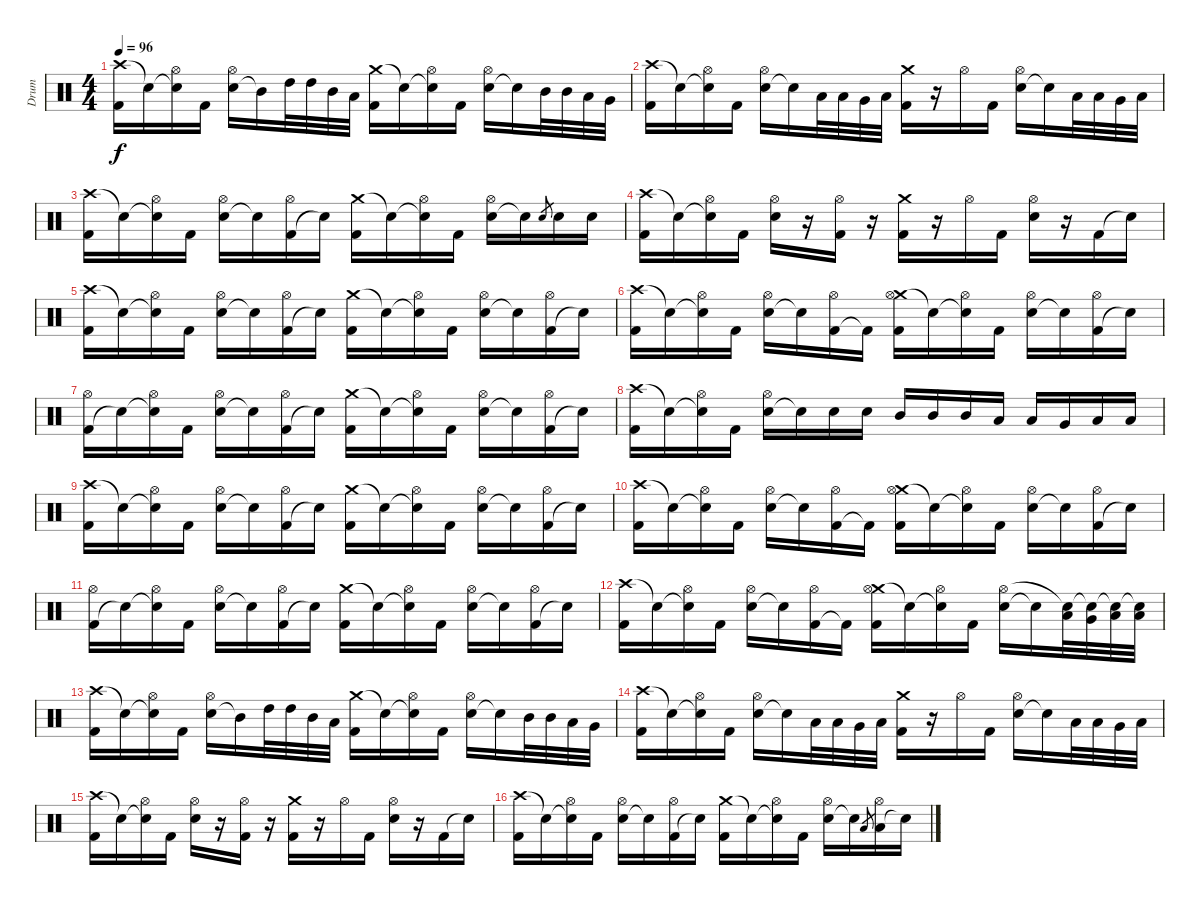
\track ("Drum" "Drum") {instrument percussion}
\staff {score}
\articulation defaults
\ts (4 4)
\tempo 96
\clef neutral
\ks c
("Crash high (hit)" "Kick (hit) 2").16{dy f} "Snare (hit)"{t}.16 ("Snare (hit)"{t} "Hi-Hat (open)").16 "Kick (hit) 2".16 ("Electric Snare (hit)" "Hi-Hat (open)").16 "Mid Tom (hit)"{t}.16 "High Tom (hit)".32{balance 0} "High Tom (hit)".32 "Mid Tom (hit)".32 "Low Tom (hit)".32 ("Crash medium (hit)" "Kick (hit) 2").16{balance 8} "Snare (hit)"{t}.16 ("Snare (hit)"{t} "Hi-Hat (open)").16 "Kick (hit) 2".16 ("Electric Snare (hit)" "Hi-Hat (open)").16 "Snare (hit)"{t}.16 "Mid Tom (hit)".32{balance 16} "Mid Tom (hit)".32 "Low Tom (hit)".32 "Very Low Tom (hit)".32 |
("Crash high (hit)" "Kick (hit) 2").16{balance 8} "Snare (hit)"{t}.16 ("Snare (hit)"{t} "Hi-Hat (open)").16 "Kick (hit) 2".16 ("Electric Snare (hit)" "Hi-Hat (open)").16 "Snare (hit)"{t}.16 "Low Tom (hit)".32{balance 0} "Low Tom (hit)".32 "Very Low Tom (hit)".32 "Low Floor Tom (hit)".32 ("Crash medium (hit)" "Kick (hit) 2").16{balance 8} r.16 "Hi-Hat (open)".16 "Kick (hit) 2".16 ("Electric Snare (hit)" "Hi-Hat (open)").16 "Snare (hit)"{t}.16 "Low Tom (hit)".32{balance 16} "Low Tom (hit)".32 "Very Low Tom (hit)".32 "Low Floor Tom (hit)".32 |
("Crash high (hit)" "Kick (hit) 2").16{balance 8} "Snare (hit)"{t}.16 ("Snare (hit)"{t} "Hi-Hat (open)").16 "Kick (hit) 2".16 ("Electric Snare (hit)" "Hi-Hat (open)").16 "Snare (hit)"{t}.16 ("Kick (hit) 2" "Hi-Hat (open)").16 "Snare (hit)"{t}.16 ("Crash medium (hit)" "Kick (hit) 2").16 "Snare (hit)"{t}.16 ("Snare (hit)"{t} "Hi-Hat (open)").16 "Kick (hit) 2".16 ("Electric Snare (hit)" "Hi-Hat (open)").16 "Snare (hit)"{t}.16 "Electric Snare (hit)".8{gr} "Electric Snare (hit)".16 "Electric Snare (hit)".16 |
("Crash high (hit)" "Kick (hit) 2").16 "Snare (hit)"{t}.16 ("Snare (hit)"{t} "Hi-Hat (open)").16 "Kick (hit) 2".16 ("Electric Snare (hit)" "Hi-Hat (open)").16 r.16 ("Kick (hit) 2" "Hi-Hat (open)").16 r.16 ("Crash medium (hit)" "Kick (hit) 2").16 r.16 "Hi-Hat (open)".16 "Kick (hit) 2".16 ("Electric Snare (hit)" "Hi-Hat (open)").16 r.16 "Kick (hit) 2".16 "Snare (hit)"{t}.16 |
("Crash high (hit)" "Kick (hit) 2").16 "Snare (hit)"{t}.16 ("Snare (hit)"{t} "Hi-Hat (open)").16 "Kick (hit) 2".16 ("Electric Snare (hit)" "Hi-Hat (open)").16 "Snare (hit)"{t}.16 ("Kick (hit) 2" "Hi-Hat (open)").16 "Snare (hit)"{t}.16 ("Crash medium (hit)" "Kick (hit) 2").16 "Snare (hit)"{t}.16 ("Snare (hit)"{t} "Hi-Hat (open)").16 "Kick (hit) 2".16 ("Electric Snare (hit)" "Hi-Hat (open)").16 "Snare (hit)"{t}.16 ("Kick (hit) 2" "Hi-Hat (open)").16 "Snare (hit)"{t}.16 |
("Crash high (hit)" "Kick (hit) 2").16 "Snare (hit)"{t}.16 ("Snare (hit)"{t} "Hi-Hat (open)").16 "Kick (hit) 2".16 ("Electric Snare (hit)" "Hi-Hat (open)").16 "Snare (hit)"{t}.16 ("Kick (hit) 2" "Hi-Hat (open)").16 "Kick (hit) 2"{t}.16 ("Crash medium (hit)" "Kick (hit) 2" "Hi-Hat (open)").16 "Snare (hit)"{t}.16 ("Snare (hit)"{t} "Hi-Hat (open)").16 "Kick (hit) 2".16 ("Electric Snare (hit)" "Hi-Hat (open)").16 "Snare (hit)"{t}.16 ("Kick (hit) 2" "Hi-Hat (open)").16 "Snare (hit)"{t}.16 |
("Kick (hit) 2" "Hi-Hat (open)").16 "Snare (hit)"{t}.16 ("Snare (hit)"{t} "Hi-Hat (open)").16 "Kick (hit) 2".16 ("Electric Snare (hit)" "Hi-Hat (open)").16 "Snare (hit)"{t}.16 ("Kick (hit) 2" "Hi-Hat (open)").16 "Snare (hit)"{t}.16 ("Crash medium (hit)" "Kick (hit) 2").16 "Snare (hit)"{t}.16 ("Snare (hit)"{t} "Hi-Hat (open)").16 "Kick (hit) 2".16 ("Electric Snare (hit)" "Hi-Hat (open)").16 "Snare (hit)"{t}.16 ("Kick (hit) 2" "Hi-Hat (open)").16 "Snare (hit)"{t}.16 |
("Crash high (hit)" "Kick (hit) 2").16 "Snare (hit)"{t}.16 ("Snare (hit)"{t} "Hi-Hat (open)").16 "Kick (hit) 2".16 ("Electric Snare (hit)" "Hi-Hat (open)").16 "Snare (hit)"{t}.16 "Electric Snare (hit)".16 "Electric Snare (hit)".16 "Mid Tom (hit)".16 "Mid Tom (hit)".16 "Mid Tom (hit)".16 "Low Tom (hit)".16 "Low Tom (hit)".16 "Very Low Tom (hit)".16 "Low Floor Tom (hit)".16 "Low Floor Tom (hit)".16 |
("Crash high (hit)" "Kick (hit) 2").16 "Snare (hit)"{t}.16 ("Snare (hit)"{t} "Hi-Hat (open)").16 "Kick (hit) 2".16 ("Electric Snare (hit)" "Hi-Hat (open)").16 "Snare (hit)"{t}.16 ("Kick (hit) 2" "Hi-Hat (open)").16 "Snare (hit)"{t}.16 ("Crash medium (hit)" "Kick (hit) 2").16 "Snare (hit)"{t}.16 ("Snare (hit)"{t} "Hi-Hat (open)").16 "Kick (hit) 2".16 ("Electric Snare (hit)" "Hi-Hat (open)").16 "Snare (hit)"{t}.16 ("Kick (hit) 2" "Hi-Hat (open)").16 "Snare (hit)"{t}.16 |
("Crash high (hit)" "Kick (hit) 2").16 "Snare (hit)"{t}.16 ("Snare (hit)"{t} "Hi-Hat (open)").16 "Kick (hit) 2".16 ("Electric Snare (hit)" "Hi-Hat (open)").16 "Snare (hit)"{t}.16 ("Kick (hit) 2" "Hi-Hat (open)").16 "Kick (hit) 2"{t}.16 ("Crash medium (hit)" "Kick (hit) 2" "Hi-Hat (open)").16 "Snare (hit)"{t}.16 ("Snare (hit)"{t} "Hi-Hat (open)").16 "Kick (hit) 2".16 ("Electric Snare (hit)" "Hi-Hat (open)").16 "Snare (hit)"{t}.16 ("Kick (hit) 2" "Hi-Hat (open)").16 "Snare (hit)"{t}.16 |
("Kick (hit) 2" "Hi-Hat (open)").16 "Snare (hit)"{t}.16 ("Snare (hit)"{t} "Hi-Hat (open)").16 "Kick (hit) 2".16 ("Electric Snare (hit)" "Hi-Hat (open)").16 "Snare (hit)"{t}.16 ("Kick (hit) 2" "Hi-Hat (open)").16 "Snare (hit)"{t}.16 ("Crash medium (hit)" "Kick (hit) 2").16 "Snare (hit)"{t}.16 ("Snare (hit)"{t} "Hi-Hat (open)").16 "Kick (hit) 2".16 ("Electric Snare (hit)" "Hi-Hat (open)").16 "Snare (hit)"{t}.16 ("Kick (hit) 2" "Hi-Hat (open)").16 "Snare (hit)"{t}.16 |
("Crash high (hit)" "Kick (hit) 2").16 "Snare (hit)"{t}.16 ("Snare (hit)"{t} "Hi-Hat (open)").16 "Kick (hit) 2".16 ("Electric Snare (hit)" "Hi-Hat (open)").16 "Snare (hit)"{t}.16 ("Kick (hit) 2" "Hi-Hat (open)").16 "Kick (hit) 2"{t}.16 ("Crash medium (hit)" "Kick (hit) 2" "Hi-Hat (open)").16 "Snare (hit)"{t}.16 ("Snare (hit)"{t} "Hi-Hat (open)").16 "Kick (hit) 2".16 ("Electric Snare (hit)" "Hi-Hat (open)").16 "Snare (hit)"{t}.16 ("Low Tom (hit)" "Snare (hit)"{t}).32 ("Very Low Tom (hit)" "Snare (hit)"{t}).32 ("Low Floor Tom (hit)" "Snare (hit)"{t}).32 ("Low Floor Tom (hit)" "Snare (hit)"{t}).32 |
("Crash high (hit)" "Kick (hit) 2").16 "Snare (hit)"{t}.16 ("Snare (hit)"{t} "Hi-Hat (open)").16 "Kick (hit) 2".16 ("Electric Snare (hit)" "Hi-Hat (open)").16 "Mid Tom (hit)"{t}.16 "High Tom (hit)".32{balance 0} "High Tom (hit)".32 "Mid Tom (hit)".32 "Low Tom (hit)".32 ("Crash medium (hit)" "Kick (hit) 2").16{balance 8} "Snare (hit)"{t}.16 ("Snare (hit)"{t} "Hi-Hat (open)").16 "Kick (hit) 2".16 ("Electric Snare (hit)" "Hi-Hat (open)").16 "Snare (hit)"{t}.16 "Mid Tom (hit)".32{balance 16} "Mid Tom (hit)".32 "Low Tom (hit)".32 "Very Low Tom (hit)".32 |
("Crash high (hit)" "Kick (hit) 2").16{balance 8} "Snare (hit)"{t}.16 ("Snare (hit)"{t} "Hi-Hat (open)").16 "Kick (hit) 2".16 ("Electric Snare (hit)" "Hi-Hat (open)").16 "Snare (hit)"{t}.16 "Low Tom (hit)".32{balance 0} "Low Tom (hit)".32 "Very Low Tom (hit)".32 "Low Floor Tom (hit)".32 ("Crash medium (hit)" "Kick (hit) 2").16{balance 8} r.16 "Hi-Hat (open)".16 "Kick (hit) 2".16 ("Electric Snare (hit)" "Hi-Hat (open)").16 "Snare (hit)"{t}.16 "Low Tom (hit)".32{balance 16} "Low Tom (hit)".32 "Very Low Tom (hit)".32 "Low Floor Tom (hit)".32 |
("Crash high (hit)" "Kick (hit) 2").16{balance 8} "Snare (hit)"{t}.16 ("Snare (hit)"{t} "Hi-Hat (open)").16 "Kick (hit) 2".16 ("Electric Snare (hit)" "Hi-Hat (open)").16 r.16 ("Kick (hit) 2" "Hi-Hat (open)").16 r.16 ("Crash medium (hit)" "Kick (hit) 2").16 r.16 "Hi-Hat (open)".16 "Kick (hit) 2".16 ("Electric Snare (hit)" "Hi-Hat (open)").16 r.16 "Kick (hit) 2".16 "Snare (hit)"{t}.16 |
("Crash high (hit)" "Kick (hit) 2").16 "Snare (hit)"{t}.16 ("Snare (hit)"{t} "Hi-Hat (open)").16 "Kick (hit) 2".16 ("Electric Snare (hit)" "Hi-Hat (open)").16 "Snare (hit)"{t}.16 ("Kick (hit) 2" "Hi-Hat (open)").16 "Snare (hit)"{t}.16 ("Crash medium (hit)" "Kick (hit) 2").16 "Snare (hit)"{t}.16 ("Snare (hit)"{t} "Hi-Hat (open)").16 "Kick (hit) 2".16 ("Electric Snare (hit)" "Hi-Hat (open)").16 "Snare (hit)"{t}.16 "Low Tom (hit)".8{gr} ("Low Tom (hit)" "Hi-Hat (open)").16 "Snare (hit)"{t}.16
